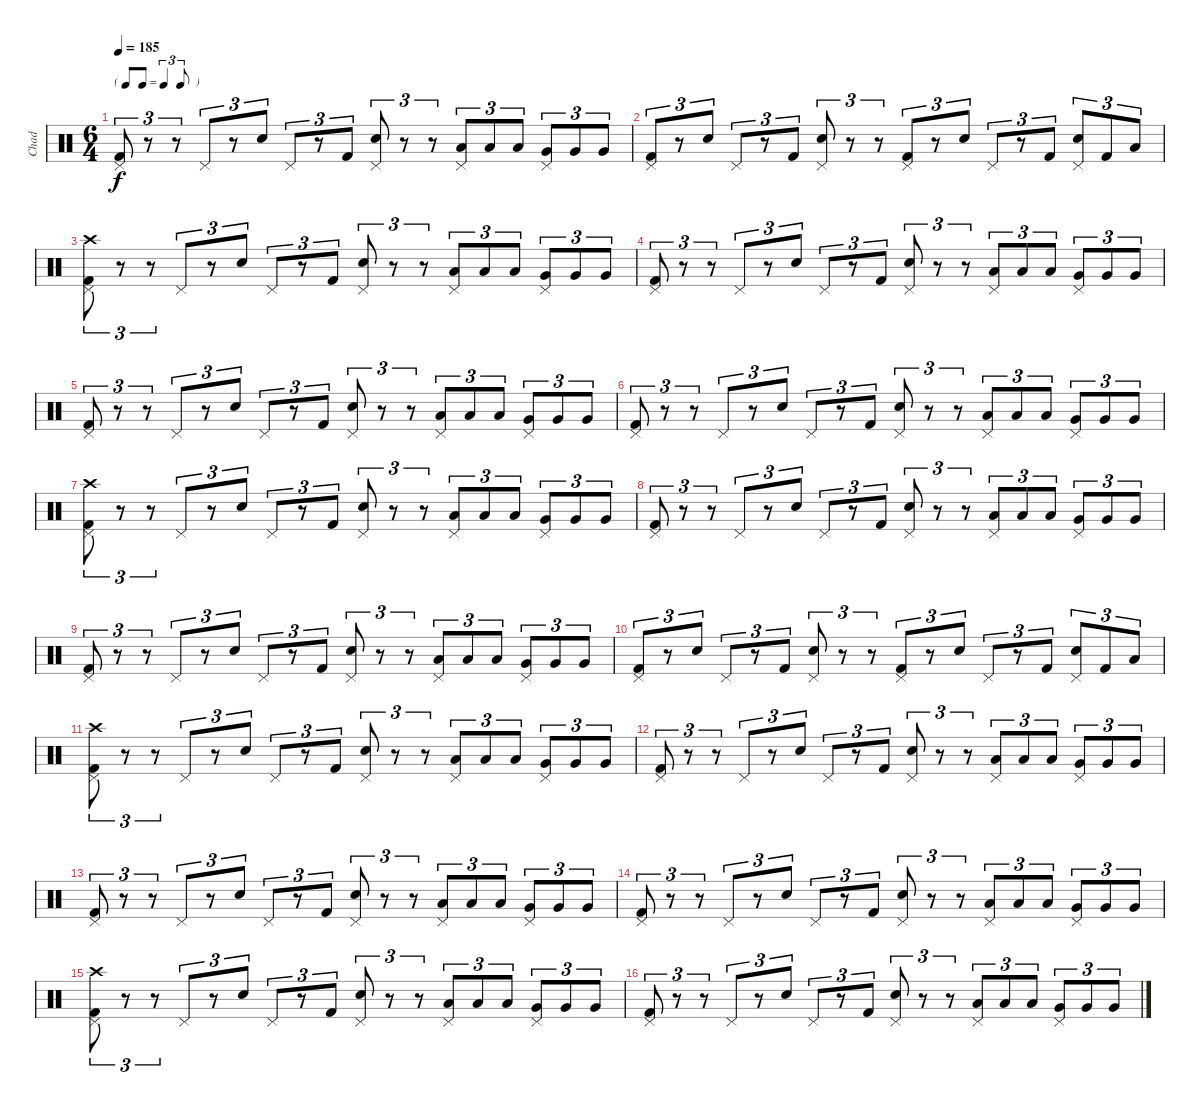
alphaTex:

\track ("Chad" "Chad") {instrument percussion}
\staff {score}
\articulation defaults
\ts (6 4)
\tf triplet8th
\tempo 185
\clef neutral
\ks c
("Kick (hit) 2" "Pedal Hi-Hat (hit)").8{tu (3 2) dy f} r.8{tu (3 2)} r.8{tu (3 2)} "Pedal Hi-Hat (hit)".8{tu (3 2)} r.8{tu (3 2)} "Electric Snare (hit)".8{tu (3 2)} "Pedal Hi-Hat (hit)".8{tu (3 2)} r.8{tu (3 2)} "Kick (hit) 2".8{tu (3 2)} ("Electric Snare (hit)" "Pedal Hi-Hat (hit)").8{tu (3 2)} r.8{tu (3 2)} r.8{tu (3 2)} ("Low Tom (hit)" "Pedal Hi-Hat (hit)").8{tu (3 2)} "Low Tom (hit)".8{tu (3 2)} "Low Tom (hit)".8{tu (3 2)} ("Very Low Tom (hit)" "Pedal Hi-Hat (hit)").8{tu (3 2)} "Very Low Tom (hit)".8{tu (3 2)} "Very Low Tom (hit)".8{tu (3 2)} |
("Kick (hit) 2" "Pedal Hi-Hat (hit)").8{tu (3 2)} r.8{tu (3 2)} "Electric Snare (hit)".8{tu (3 2)} "Pedal Hi-Hat (hit)".8{tu (3 2)} r.8{tu (3 2)} "Kick (hit) 2".8{tu (3 2)} ("Electric Snare (hit)" "Pedal Hi-Hat (hit)").8{tu (3 2)} r.8{tu (3 2)} r.8{tu (3 2)} ("Kick (hit) 2" "Pedal Hi-Hat (hit)").8{tu (3 2)} r.8{tu (3 2)} "Electric Snare (hit)".8{tu (3 2)} "Pedal Hi-Hat (hit)".8{tu (3 2)} r.8{tu (3 2)} "Kick (hit) 2".8{tu (3 2)} ("Electric Snare (hit)" "Pedal Hi-Hat (hit)").8{tu (3 2)} "Kick (hit) 2".8{tu (3 2)} "Low Tom (hit)".8{tu (3 2)} |
("Kick (hit) 2" "Pedal Hi-Hat (hit)" "Crash high (hit)").8{tu (3 2)} r.8{tu (3 2)} r.8{tu (3 2)} "Pedal Hi-Hat (hit)".8{tu (3 2)} r.8{tu (3 2)} "Electric Snare (hit)".8{tu (3 2)} "Pedal Hi-Hat (hit)".8{tu (3 2)} r.8{tu (3 2)} "Kick (hit) 2".8{tu (3 2)} ("Electric Snare (hit)" "Pedal Hi-Hat (hit)").8{tu (3 2)} r.8{tu (3 2)} r.8{tu (3 2)} ("Low Tom (hit)" "Pedal Hi-Hat (hit)").8{tu (3 2)} "Low Tom (hit)".8{tu (3 2)} "Low Tom (hit)".8{tu (3 2)} ("Very Low Tom (hit)" "Pedal Hi-Hat (hit)").8{tu (3 2)} "Very Low Tom (hit)".8{tu (3 2)} "Very Low Tom (hit)".8{tu (3 2)} |
("Kick (hit) 2" "Pedal Hi-Hat (hit)").8{tu (3 2)} r.8{tu (3 2)} r.8{tu (3 2)} "Pedal Hi-Hat (hit)".8{tu (3 2)} r.8{tu (3 2)} "Electric Snare (hit)".8{tu (3 2)} "Pedal Hi-Hat (hit)".8{tu (3 2)} r.8{tu (3 2)} "Kick (hit) 2".8{tu (3 2)} ("Electric Snare (hit)" "Pedal Hi-Hat (hit)").8{tu (3 2)} r.8{tu (3 2)} r.8{tu (3 2)} ("Low Tom (hit)" "Pedal Hi-Hat (hit)").8{tu (3 2)} "Low Tom (hit)".8{tu (3 2)} "Low Tom (hit)".8{tu (3 2)} ("Very Low Tom (hit)" "Pedal Hi-Hat (hit)").8{tu (3 2)} "Very Low Tom (hit)".8{tu (3 2)} "Very Low Tom (hit)".8{tu (3 2)} |
("Kick (hit) 2" "Pedal Hi-Hat (hit)").8{tu (3 2)} r.8{tu (3 2)} r.8{tu (3 2)} "Pedal Hi-Hat (hit)".8{tu (3 2)} r.8{tu (3 2)} "Electric Snare (hit)".8{tu (3 2)} "Pedal Hi-Hat (hit)".8{tu (3 2)} r.8{tu (3 2)} "Kick (hit) 2".8{tu (3 2)} ("Electric Snare (hit)" "Pedal Hi-Hat (hit)").8{tu (3 2)} r.8{tu (3 2)} r.8{tu (3 2)} ("Low Tom (hit)" "Pedal Hi-Hat (hit)").8{tu (3 2)} "Low Tom (hit)".8{tu (3 2)} "Low Tom (hit)".8{tu (3 2)} ("Very Low Tom (hit)" "Pedal Hi-Hat (hit)").8{tu (3 2)} "Very Low Tom (hit)".8{tu (3 2)} "Very Low Tom (hit)".8{tu (3 2)} |
("Kick (hit) 2" "Pedal Hi-Hat (hit)").8{tu (3 2)} r.8{tu (3 2)} r.8{tu (3 2)} "Pedal Hi-Hat (hit)".8{tu (3 2)} r.8{tu (3 2)} "Electric Snare (hit)".8{tu (3 2)} "Pedal Hi-Hat (hit)".8{tu (3 2)} r.8{tu (3 2)} "Kick (hit) 2".8{tu (3 2)} ("Electric Snare (hit)" "Pedal Hi-Hat (hit)").8{tu (3 2)} r.8{tu (3 2)} r.8{tu (3 2)} ("Low Tom (hit)" "Pedal Hi-Hat (hit)").8{tu (3 2)} "Low Tom (hit)".8{tu (3 2)} "Low Tom (hit)".8{tu (3 2)} ("Very Low Tom (hit)" "Pedal Hi-Hat (hit)").8{tu (3 2)} "Very Low Tom (hit)".8{tu (3 2)} "Very Low Tom (hit)".8{tu (3 2)} |
("Kick (hit) 2" "Pedal Hi-Hat (hit)" "Crash high (hit)").8{tu (3 2)} r.8{tu (3 2)} r.8{tu (3 2)} "Pedal Hi-Hat (hit)".8{tu (3 2)} r.8{tu (3 2)} "Electric Snare (hit)".8{tu (3 2)} "Pedal Hi-Hat (hit)".8{tu (3 2)} r.8{tu (3 2)} "Kick (hit) 2".8{tu (3 2)} ("Electric Snare (hit)" "Pedal Hi-Hat (hit)").8{tu (3 2)} r.8{tu (3 2)} r.8{tu (3 2)} ("Low Tom (hit)" "Pedal Hi-Hat (hit)").8{tu (3 2)} "Low Tom (hit)".8{tu (3 2)} "Low Tom (hit)".8{tu (3 2)} ("Very Low Tom (hit)" "Pedal Hi-Hat (hit)").8{tu (3 2)} "Very Low Tom (hit)".8{tu (3 2)} "Very Low Tom (hit)".8{tu (3 2)} |
("Kick (hit) 2" "Pedal Hi-Hat (hit)").8{tu (3 2)} r.8{tu (3 2)} r.8{tu (3 2)} "Pedal Hi-Hat (hit)".8{tu (3 2)} r.8{tu (3 2)} "Electric Snare (hit)".8{tu (3 2)} "Pedal Hi-Hat (hit)".8{tu (3 2)} r.8{tu (3 2)} "Kick (hit) 2".8{tu (3 2)} ("Electric Snare (hit)" "Pedal Hi-Hat (hit)").8{tu (3 2)} r.8{tu (3 2)} r.8{tu (3 2)} ("Low Tom (hit)" "Pedal Hi-Hat (hit)").8{tu (3 2)} "Low Tom (hit)".8{tu (3 2)} "Low Tom (hit)".8{tu (3 2)} ("Very Low Tom (hit)" "Pedal Hi-Hat (hit)").8{tu (3 2)} "Very Low Tom (hit)".8{tu (3 2)} "Very Low Tom (hit)".8{tu (3 2)} |
("Kick (hit) 2" "Pedal Hi-Hat (hit)").8{tu (3 2)} r.8{tu (3 2)} r.8{tu (3 2)} "Pedal Hi-Hat (hit)".8{tu (3 2)} r.8{tu (3 2)} "Electric Snare (hit)".8{tu (3 2)} "Pedal Hi-Hat (hit)".8{tu (3 2)} r.8{tu (3 2)} "Kick (hit) 2".8{tu (3 2)} ("Electric Snare (hit)" "Pedal Hi-Hat (hit)").8{tu (3 2)} r.8{tu (3 2)} r.8{tu (3 2)} ("Low Tom (hit)" "Pedal Hi-Hat (hit)").8{tu (3 2)} "Low Tom (hit)".8{tu (3 2)} "Low Tom (hit)".8{tu (3 2)} ("Very Low Tom (hit)" "Pedal Hi-Hat (hit)").8{tu (3 2)} "Very Low Tom (hit)".8{tu (3 2)} "Very Low Tom (hit)".8{tu (3 2)} |
("Kick (hit) 2" "Pedal Hi-Hat (hit)").8{tu (3 2)} r.8{tu (3 2)} "Electric Snare (hit)".8{tu (3 2)} "Pedal Hi-Hat (hit)".8{tu (3 2)} r.8{tu (3 2)} "Kick (hit) 2".8{tu (3 2)} ("Electric Snare (hit)" "Pedal Hi-Hat (hit)").8{tu (3 2)} r.8{tu (3 2)} r.8{tu (3 2)} ("Kick (hit) 2" "Pedal Hi-Hat (hit)").8{tu (3 2)} r.8{tu (3 2)} "Electric Snare (hit)".8{tu (3 2)} "Pedal Hi-Hat (hit)".8{tu (3 2)} r.8{tu (3 2)} "Kick (hit) 2".8{tu (3 2)} ("Electric Snare (hit)" "Pedal Hi-Hat (hit)").8{tu (3 2)} "Kick (hit) 2".8{tu (3 2)} "Low Tom (hit)".8{tu (3 2)} |
("Kick (hit) 2" "Pedal Hi-Hat (hit)" "Crash high (hit)").8{tu (3 2)} r.8{tu (3 2)} r.8{tu (3 2)} "Pedal Hi-Hat (hit)".8{tu (3 2)} r.8{tu (3 2)} "Electric Snare (hit)".8{tu (3 2)} "Pedal Hi-Hat (hit)".8{tu (3 2)} r.8{tu (3 2)} "Kick (hit) 2".8{tu (3 2)} ("Electric Snare (hit)" "Pedal Hi-Hat (hit)").8{tu (3 2)} r.8{tu (3 2)} r.8{tu (3 2)} ("Low Tom (hit)" "Pedal Hi-Hat (hit)").8{tu (3 2)} "Low Tom (hit)".8{tu (3 2)} "Low Tom (hit)".8{tu (3 2)} ("Very Low Tom (hit)" "Pedal Hi-Hat (hit)").8{tu (3 2)} "Very Low Tom (hit)".8{tu (3 2)} "Very Low Tom (hit)".8{tu (3 2)} |
("Kick (hit) 2" "Pedal Hi-Hat (hit)").8{tu (3 2)} r.8{tu (3 2)} r.8{tu (3 2)} "Pedal Hi-Hat (hit)".8{tu (3 2)} r.8{tu (3 2)} "Electric Snare (hit)".8{tu (3 2)} "Pedal Hi-Hat (hit)".8{tu (3 2)} r.8{tu (3 2)} "Kick (hit) 2".8{tu (3 2)} ("Electric Snare (hit)" "Pedal Hi-Hat (hit)").8{tu (3 2)} r.8{tu (3 2)} r.8{tu (3 2)} ("Low Tom (hit)" "Pedal Hi-Hat (hit)").8{tu (3 2)} "Low Tom (hit)".8{tu (3 2)} "Low Tom (hit)".8{tu (3 2)} ("Very Low Tom (hit)" "Pedal Hi-Hat (hit)").8{tu (3 2)} "Very Low Tom (hit)".8{tu (3 2)} "Very Low Tom (hit)".8{tu (3 2)} |
("Kick (hit) 2" "Pedal Hi-Hat (hit)").8{tu (3 2)} r.8{tu (3 2)} r.8{tu (3 2)} "Pedal Hi-Hat (hit)".8{tu (3 2)} r.8{tu (3 2)} "Electric Snare (hit)".8{tu (3 2)} "Pedal Hi-Hat (hit)".8{tu (3 2)} r.8{tu (3 2)} "Kick (hit) 2".8{tu (3 2)} ("Electric Snare (hit)" "Pedal Hi-Hat (hit)").8{tu (3 2)} r.8{tu (3 2)} r.8{tu (3 2)} ("Low Tom (hit)" "Pedal Hi-Hat (hit)").8{tu (3 2)} "Low Tom (hit)".8{tu (3 2)} "Low Tom (hit)".8{tu (3 2)} ("Very Low Tom (hit)" "Pedal Hi-Hat (hit)").8{tu (3 2)} "Very Low Tom (hit)".8{tu (3 2)} "Very Low Tom (hit)".8{tu (3 2)} |
("Kick (hit) 2" "Pedal Hi-Hat (hit)").8{tu (3 2)} r.8{tu (3 2)} r.8{tu (3 2)} "Pedal Hi-Hat (hit)".8{tu (3 2)} r.8{tu (3 2)} "Electric Snare (hit)".8{tu (3 2)} "Pedal Hi-Hat (hit)".8{tu (3 2)} r.8{tu (3 2)} "Kick (hit) 2".8{tu (3 2)} ("Electric Snare (hit)" "Pedal Hi-Hat (hit)").8{tu (3 2)} r.8{tu (3 2)} r.8{tu (3 2)} ("Low Tom (hit)" "Pedal Hi-Hat (hit)").8{tu (3 2)} "Low Tom (hit)".8{tu (3 2)} "Low Tom (hit)".8{tu (3 2)} ("Very Low Tom (hit)" "Pedal Hi-Hat (hit)").8{tu (3 2)} "Very Low Tom (hit)".8{tu (3 2)} "Very Low Tom (hit)".8{tu (3 2)} |
("Kick (hit) 2" "Pedal Hi-Hat (hit)" "Crash high (hit)").8{tu (3 2)} r.8{tu (3 2)} r.8{tu (3 2)} "Pedal Hi-Hat (hit)".8{tu (3 2)} r.8{tu (3 2)} "Electric Snare (hit)".8{tu (3 2)} "Pedal Hi-Hat (hit)".8{tu (3 2)} r.8{tu (3 2)} "Kick (hit) 2".8{tu (3 2)} ("Electric Snare (hit)" "Pedal Hi-Hat (hit)").8{tu (3 2)} r.8{tu (3 2)} r.8{tu (3 2)} ("Low Tom (hit)" "Pedal Hi-Hat (hit)").8{tu (3 2)} "Low Tom (hit)".8{tu (3 2)} "Low Tom (hit)".8{tu (3 2)} ("Very Low Tom (hit)" "Pedal Hi-Hat (hit)").8{tu (3 2)} "Very Low Tom (hit)".8{tu (3 2)} "Very Low Tom (hit)".8{tu (3 2)} |
("Kick (hit) 2" "Pedal Hi-Hat (hit)").8{tu (3 2)} r.8{tu (3 2)} r.8{tu (3 2)} "Pedal Hi-Hat (hit)".8{tu (3 2)} r.8{tu (3 2)} "Electric Snare (hit)".8{tu (3 2)} "Pedal Hi-Hat (hit)".8{tu (3 2)} r.8{tu (3 2)} "Kick (hit) 2".8{tu (3 2)} ("Electric Snare (hit)" "Pedal Hi-Hat (hit)").8{tu (3 2)} r.8{tu (3 2)} r.8{tu (3 2)} ("Low Tom (hit)" "Pedal Hi-Hat (hit)").8{tu (3 2)} "Low Tom (hit)".8{tu (3 2)} "Low Tom (hit)".8{tu (3 2)} ("Very Low Tom (hit)" "Pedal Hi-Hat (hit)").8{tu (3 2)} "Very Low Tom (hit)".8{tu (3 2)} "Very Low Tom (hit)".8{tu (3 2)}
